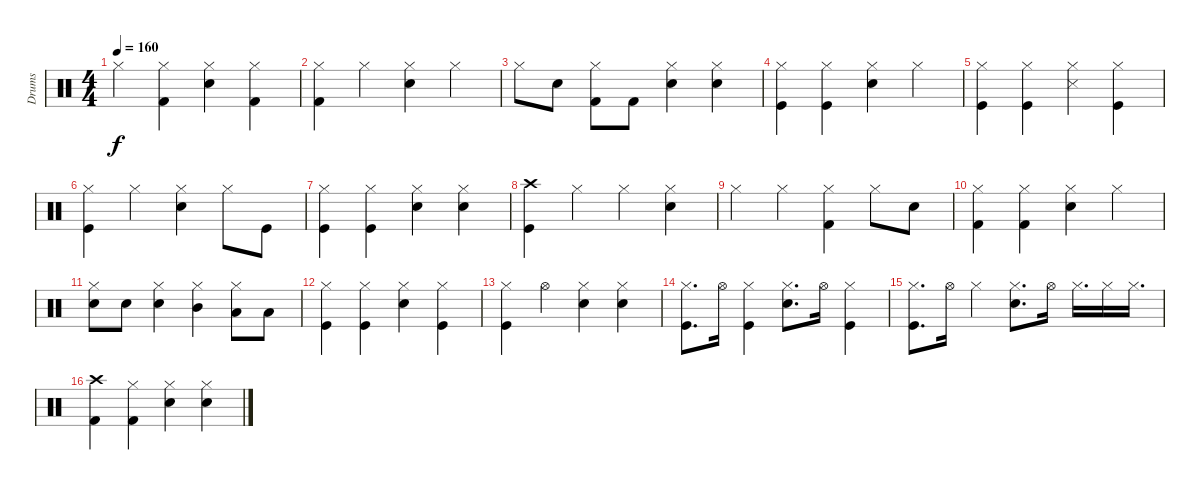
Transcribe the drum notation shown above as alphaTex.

\track ("Drums" "Drums") {instrument percussion}
\staff {score}
\articulation defaults
\ts (4 4)
\tempo 160
\clef neutral
\ks c "Hi-Hat (closed)".4{dy f}
("Hi-Hat (closed)" "Kick (hit) 2").4 ("Hi-Hat (closed)" "Snare (hit) 2").4 ("Hi-Hat (closed)" "Kick (hit) 2").4 |
("Kick (hit) 2" "Hi-Hat (closed)").4 "Hi-Hat (closed)".4 ("Snare (hit) 2" "Hi-Hat (closed)").4 "Hi-Hat (closed)".4 |
"Hi-Hat (closed)".8 "Snare (hit) 2".8 ("Kick (hit) 2" "Hi-Hat (closed)").8 "Kick (hit) 2".8 ("Snare (hit) 2" "Hi-Hat (closed)").4 ("Snare (hit) 2" "Hi-Hat (closed)").4 |
("Kick (hit)" "Hi-Hat (closed)").4 ("Kick (hit)" "Hi-Hat (closed)").4 ("Snare (hit) 2" "Hi-Hat (closed)").4 "Hi-Hat (closed)".4 |
("Kick (hit)" "Hi-Hat (closed)").4 ("Kick (hit)" "Hi-Hat (closed)").4 ("Snare (side stick) 3" "Hi-Hat (closed)").4 ("Kick (hit)" "Hi-Hat (closed)").4 |
("Kick (hit)" "Hi-Hat (closed)").4 "Hi-Hat (closed)".4 ("Snare (hit) 2" "Hi-Hat (closed)").4 "Hi-Hat (closed)".8 "Kick (hit)".8 |
("Kick (hit)" "Hi-Hat (closed)").4 ("Kick (hit)" "Hi-Hat (closed)").4 ("Snare (hit) 2" "Hi-Hat (closed)").4 ("Snare (hit) 2" "Hi-Hat (closed)").4 |
("Kick (hit)" "Crash high (hit)").4 "Hi-Hat (closed)".4 "Hi-Hat (closed)".4 ("Snare (hit) 2" "Hi-Hat (closed)").4 |
"Hi-Hat (closed)".4 "Hi-Hat (closed)".4 ("Hi-Hat (closed)" "Kick (hit) 2").4 "Hi-Hat (closed)".8 "Snare (hit) 2".8 |
("Kick (hit) 2" "Hi-Hat (closed)").4 ("Kick (hit) 2" "Hi-Hat (closed)").4 ("Snare (hit) 2" "Hi-Hat (closed)").4 "Hi-Hat (closed)".4 |
("Hi-Hat (closed)" "Snare (hit) 2").8 "Snare (hit) 2".8 ("Hi-Hat (closed)" "Snare (hit) 2").4 ("Hi-Hat (closed)" "Mid Tom (hit)").4 ("Hi-Hat (closed)" "Low Tom (hit)").8 "Low Tom (hit)".8 |
("Kick (hit)" "Hi-Hat (closed)").4 ("Kick (hit)" "Hi-Hat (closed)").4 ("Snare (hit) 2" "Hi-Hat (closed)").4 ("Kick (hit)" "Hi-Hat (closed)").4 |
("Kick (hit)" "Hi-Hat (closed)").4 "Hi-Hat (open)".4 ("Snare (hit) 2" "Hi-Hat (closed)").4 ("Snare (hit) 2" "Hi-Hat (closed)").4 |
("Kick (hit)" "Hi-Hat (closed)").8{d} "Hi-Hat (open)".16 ("Kick (hit)" "Hi-Hat (closed)").4 ("Snare (hit) 2" "Hi-Hat (closed)").8{d} "Hi-Hat (open)".16 ("Kick (hit)" "Hi-Hat (closed)").4 |
("Kick (hit)" "Hi-Hat (closed)").8{d} "Hi-Hat (open)".16 "Hi-Hat (closed)".4 ("Snare (hit) 2" "Hi-Hat (closed)").8{d} "Hi-Hat (open)".16 "Hi-Hat (closed)".16{d} "Hi-Hat (closed)".16 "Hi-Hat (closed)".16{d} |
("Kick (hit) 2" "Crash high (hit)").4 ("Hi-Hat (closed)" "Kick (hit) 2").4 ("Hi-Hat (closed)" "Snare (hit) 2").4 ("Hi-Hat (closed)" "Snare (hit) 2").4
